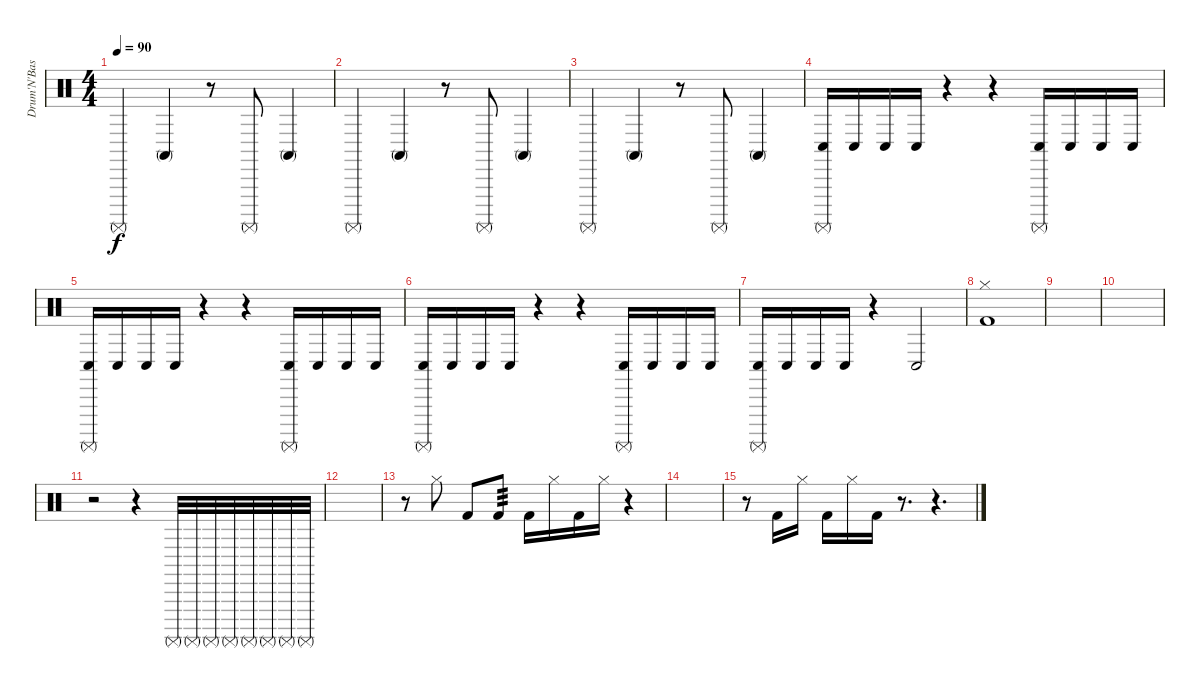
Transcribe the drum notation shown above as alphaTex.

\track ("Drum'N'Base Effects" "Drum'N'Bas") {instrument percussion}
\staff {score}
\articulation defaults
\ts (4 4)
\tempo 90
\clef neutral
\ks c "Surdo (mute)".4{dy f} "Conga high (mute)".4
r.8 "Surdo (mute)".8 "Conga high (mute)".4 |
"Surdo (mute)".4 "Conga high (mute)".4 r.8 "Surdo (mute)".8 "Conga high (mute)".4 |
"Surdo (mute)".4 "Conga high (mute)".4 r.8 "Surdo (mute)".8 "Conga high (mute)".4 |
("Conga low (hit)" "Surdo (mute)").16 "Conga low (hit)".16 "Conga low (hit)".16 "Conga low (hit)".16 r.4 r.4 ("Conga low (hit)" "Surdo (mute)").16 "Conga low (hit)".16 "Conga low (hit)".16 "Conga low (hit)".16 |
("Conga low (hit)" "Surdo (mute)").16 "Conga low (hit)".16 "Conga low (hit)".16 "Conga low (hit)".16 r.4 r.4 ("Conga low (hit)" "Surdo (mute)").16 "Conga low (hit)".16 "Conga low (hit)".16 "Conga low (hit)".16 |
("Conga low (hit)" "Surdo (mute)").16 "Conga low (hit)".16 "Conga low (hit)".16 "Conga low (hit)".16 r.4 r.4 ("Conga low (hit)" "Surdo (mute)").16 "Conga low (hit)".16 "Conga low (hit)".16 "Conga low (hit)".16 |
("Conga low (hit)" "Surdo (mute)").16 "Conga low (hit)".16 "Conga low (hit)".16 "Conga low (hit)".16 r.4 "Conga low (hit)".2 |
("Hi-Hat (closed)" "Kick (hit) 2").1 |
|
|
r.2 r.4 "Surdo (mute)".32 "Surdo (mute)".32 "Surdo (mute)".32 "Surdo (mute)".32 "Surdo (mute)".32 "Surdo (mute)".32 "Surdo (mute)".32 "Surdo (mute)".32 |
|
r.8 "Hi-Hat (closed)".8 "Kick (hit) 2".8 "Kick (hit) 2".8{tp 3} "Kick (hit) 2".16 "Hi-Hat (closed)".16 "Kick (hit) 2".16 "Hi-Hat (closed)".16 r.4 |
|
r.8 "Kick (hit) 2".16 "Hi-Hat (closed)".16 "Kick (hit) 2".16 "Hi-Hat (closed)".16 "Kick (hit) 2".16 r.8{d} r.4{d}
